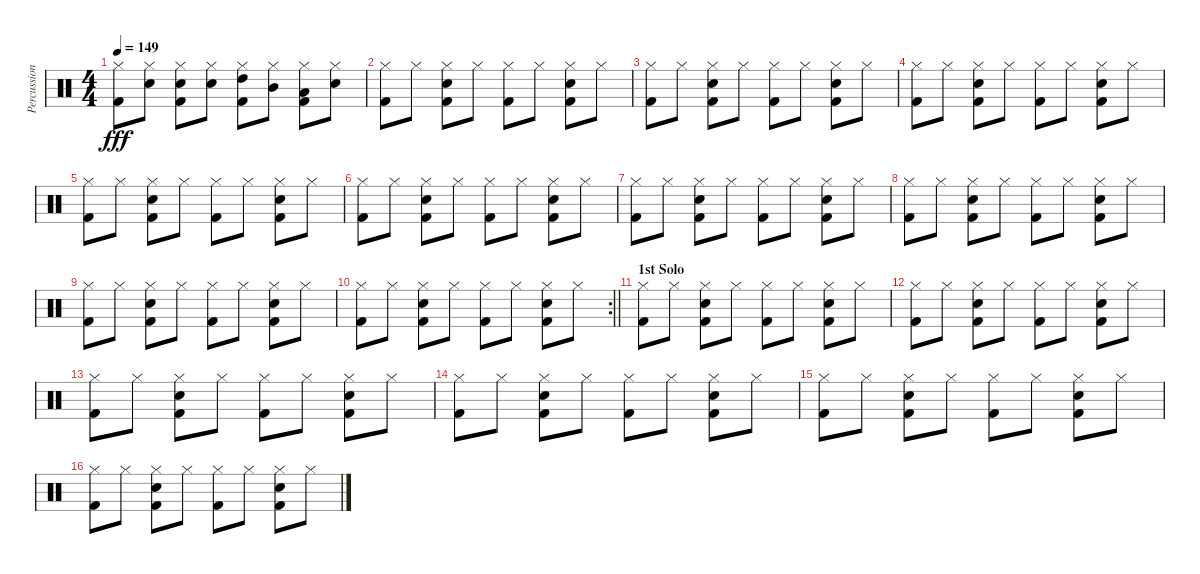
\track ("Percussion" "Percussion") {instrument percussion}
\staff {score}
\articulation defaults
\ts (4 4)
\tempo 149
\clef neutral
\ks c
("Hi-Hat (closed)" "Kick (hit) 2").8{dy fff} ("Hi-Hat (closed)" "Snare (hit) 2").8 ("Hi-Hat (closed)" "Snare (hit) 2" "Kick (hit) 2").8 ("Hi-Hat (closed)" "Snare (hit) 2").8 ("Hi-Hat (closed)" "High Tom (hit)" "Kick (hit) 2").8 ("Hi-Hat (closed)" "Mid Tom (hit)").8 ("Hi-Hat (closed)" "Low Tom (hit)" "Kick (hit) 2").8 ("Hi-Hat (closed)" "Snare (hit) 2").8 |
("Hi-Hat (closed)" "Kick (hit) 2").8 "Hi-Hat (closed)".8 ("Hi-Hat (closed)" "Snare (hit) 2" "Kick (hit) 2").8 "Hi-Hat (closed)".8 ("Hi-Hat (closed)" "Kick (hit) 2").8 "Hi-Hat (closed)".8 ("Hi-Hat (closed)" "Snare (hit) 2" "Kick (hit) 2").8 "Hi-Hat (closed)".8 |
("Hi-Hat (closed)" "Kick (hit) 2").8 "Hi-Hat (closed)".8 ("Hi-Hat (closed)" "Snare (hit) 2" "Kick (hit) 2").8 "Hi-Hat (closed)".8 ("Hi-Hat (closed)" "Kick (hit) 2").8 "Hi-Hat (closed)".8 ("Hi-Hat (closed)" "Snare (hit) 2" "Kick (hit) 2").8 "Hi-Hat (closed)".8 |
("Hi-Hat (closed)" "Kick (hit) 2").8 "Hi-Hat (closed)".8 ("Hi-Hat (closed)" "Snare (hit) 2" "Kick (hit) 2").8 "Hi-Hat (closed)".8 ("Hi-Hat (closed)" "Kick (hit) 2").8 "Hi-Hat (closed)".8 ("Hi-Hat (closed)" "Snare (hit) 2" "Kick (hit) 2").8 "Hi-Hat (closed)".8 |
("Hi-Hat (closed)" "Kick (hit) 2").8 "Hi-Hat (closed)".8 ("Hi-Hat (closed)" "Snare (hit) 2" "Kick (hit) 2").8 "Hi-Hat (closed)".8 ("Hi-Hat (closed)" "Kick (hit) 2").8 "Hi-Hat (closed)".8 ("Hi-Hat (closed)" "Snare (hit) 2" "Kick (hit) 2").8 "Hi-Hat (closed)".8 |
("Hi-Hat (closed)" "Kick (hit) 2").8 "Hi-Hat (closed)".8 ("Hi-Hat (closed)" "Snare (hit) 2" "Kick (hit) 2").8 "Hi-Hat (closed)".8 ("Hi-Hat (closed)" "Kick (hit) 2").8 "Hi-Hat (closed)".8 ("Hi-Hat (closed)" "Snare (hit) 2" "Kick (hit) 2").8 "Hi-Hat (closed)".8 |
("Hi-Hat (closed)" "Kick (hit) 2").8 "Hi-Hat (closed)".8 ("Hi-Hat (closed)" "Snare (hit) 2" "Kick (hit) 2").8 "Hi-Hat (closed)".8 ("Hi-Hat (closed)" "Kick (hit) 2").8 "Hi-Hat (closed)".8 ("Hi-Hat (closed)" "Snare (hit) 2" "Kick (hit) 2").8 "Hi-Hat (closed)".8 |
("Hi-Hat (closed)" "Kick (hit) 2").8 "Hi-Hat (closed)".8 ("Hi-Hat (closed)" "Snare (hit) 2" "Kick (hit) 2").8 "Hi-Hat (closed)".8 ("Hi-Hat (closed)" "Kick (hit) 2").8 "Hi-Hat (closed)".8 ("Hi-Hat (closed)" "Snare (hit) 2" "Kick (hit) 2").8 "Hi-Hat (closed)".8 |
("Hi-Hat (closed)" "Kick (hit) 2").8 "Hi-Hat (closed)".8 ("Hi-Hat (closed)" "Snare (hit) 2" "Kick (hit) 2").8 "Hi-Hat (closed)".8 ("Hi-Hat (closed)" "Kick (hit) 2").8 "Hi-Hat (closed)".8 ("Hi-Hat (closed)" "Snare (hit) 2" "Kick (hit) 2").8 "Hi-Hat (closed)".8 |
\rc 2
\barLineRight lightlight
("Hi-Hat (closed)" "Kick (hit) 2").8 "Hi-Hat (closed)".8 ("Hi-Hat (closed)" "Snare (hit) 2" "Kick (hit) 2").8 "Hi-Hat (closed)".8 ("Hi-Hat (closed)" "Kick (hit) 2").8 "Hi-Hat (closed)".8 ("Hi-Hat (closed)" "Snare (hit) 2" "Kick (hit) 2").8 "Hi-Hat (closed)".8 |
\section ("" "1st Solo")
("Hi-Hat (closed)" "Kick (hit) 2").8 "Hi-Hat (closed)".8 ("Hi-Hat (closed)" "Snare (hit) 2" "Kick (hit) 2").8 "Hi-Hat (closed)".8 ("Hi-Hat (closed)" "Kick (hit) 2").8 "Hi-Hat (closed)".8 ("Hi-Hat (closed)" "Snare (hit) 2" "Kick (hit) 2").8 "Hi-Hat (closed)".8 |
("Hi-Hat (closed)" "Kick (hit) 2").8 "Hi-Hat (closed)".8 ("Hi-Hat (closed)" "Snare (hit) 2" "Kick (hit) 2").8 "Hi-Hat (closed)".8 ("Hi-Hat (closed)" "Kick (hit) 2").8 "Hi-Hat (closed)".8 ("Hi-Hat (closed)" "Snare (hit) 2" "Kick (hit) 2").8 "Hi-Hat (closed)".8 |
("Hi-Hat (closed)" "Kick (hit) 2").8 "Hi-Hat (closed)".8 ("Hi-Hat (closed)" "Snare (hit) 2" "Kick (hit) 2").8 "Hi-Hat (closed)".8 ("Hi-Hat (closed)" "Kick (hit) 2").8 "Hi-Hat (closed)".8 ("Hi-Hat (closed)" "Snare (hit) 2" "Kick (hit) 2").8 "Hi-Hat (closed)".8 |
("Hi-Hat (closed)" "Kick (hit) 2").8 "Hi-Hat (closed)".8 ("Hi-Hat (closed)" "Snare (hit) 2" "Kick (hit) 2").8 "Hi-Hat (closed)".8 ("Hi-Hat (closed)" "Kick (hit) 2").8 "Hi-Hat (closed)".8 ("Hi-Hat (closed)" "Snare (hit) 2" "Kick (hit) 2").8 "Hi-Hat (closed)".8 |
("Hi-Hat (closed)" "Kick (hit) 2").8 "Hi-Hat (closed)".8 ("Hi-Hat (closed)" "Snare (hit) 2" "Kick (hit) 2").8 "Hi-Hat (closed)".8 ("Hi-Hat (closed)" "Kick (hit) 2").8 "Hi-Hat (closed)".8 ("Hi-Hat (closed)" "Snare (hit) 2" "Kick (hit) 2").8 "Hi-Hat (closed)".8 |
("Hi-Hat (closed)" "Kick (hit) 2").8 "Hi-Hat (closed)".8 ("Hi-Hat (closed)" "Snare (hit) 2" "Kick (hit) 2").8 "Hi-Hat (closed)".8 ("Hi-Hat (closed)" "Kick (hit) 2").8 "Hi-Hat (closed)".8 ("Hi-Hat (closed)" "Snare (hit) 2" "Kick (hit) 2").8 "Hi-Hat (closed)".8
